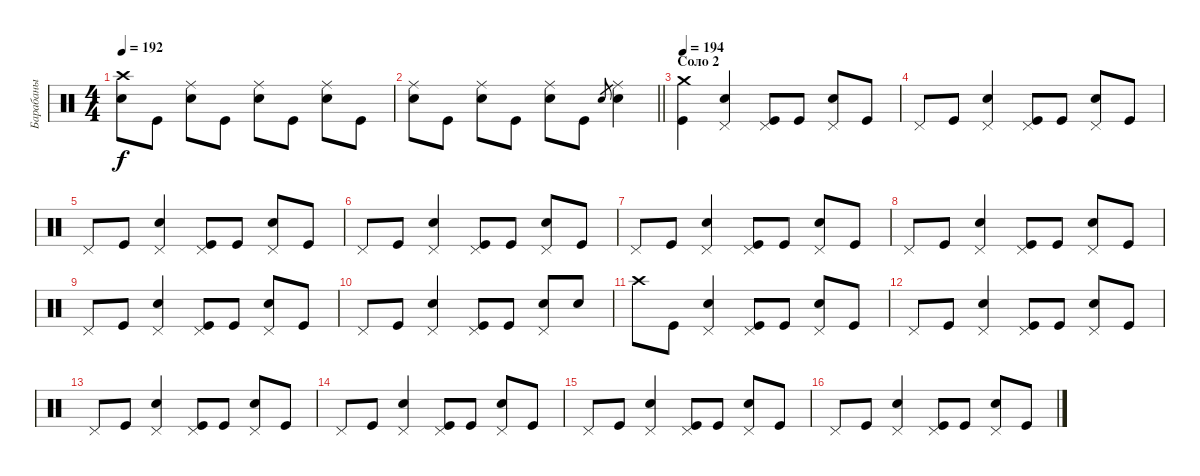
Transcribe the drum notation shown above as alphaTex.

\track ("Барабаны" "Барабаны") {instrument percussion}
\staff {score}
\articulation defaults
\ts (4 4)
\tempo 192
\clef neutral
\ks c
("Snare (hit) 2" "Crash high (hit)").8{dy f} "Kick (hit)".8 ("Snare (hit) 2" "Ride (middle)").8 "Kick (hit)".8 ("Snare (hit) 2" "Ride (middle)").8 "Kick (hit)".8 ("Snare (hit) 2" "Ride (middle)").8 "Kick (hit)".8 |
\barLineRight lightlight
("Snare (hit) 2" "Ride (middle)").8 "Kick (hit)".8 ("Snare (hit) 2" "Ride (middle)").8 "Kick (hit)".8 ("Snare (hit) 2" "Ride (middle)").8 "Kick (hit)".8 "Snare (hit) 2".8{gr} ("Snare (hit) 2" "Ride (middle)").4 |
\section ("" "Соло 2")
\tempo 194
("Kick (hit)" "Crash medium (hit)").4 ("Snare (hit) 2" "Pedal Hi-Hat (hit)").4 ("Kick (hit)" "Pedal Hi-Hat (hit)").8 "Kick (hit)".8 ("Snare (hit) 2" "Pedal Hi-Hat (hit)").8 "Kick (hit)".8 |
"Pedal Hi-Hat (hit)".8 "Kick (hit)".8 ("Snare (hit) 2" "Pedal Hi-Hat (hit)").4 ("Kick (hit)" "Pedal Hi-Hat (hit)").8 "Kick (hit)".8 ("Snare (hit) 2" "Pedal Hi-Hat (hit)").8 "Kick (hit)".8 |
"Pedal Hi-Hat (hit)".8 "Kick (hit)".8 ("Snare (hit) 2" "Pedal Hi-Hat (hit)").4 ("Kick (hit)" "Pedal Hi-Hat (hit)").8 "Kick (hit)".8 ("Snare (hit) 2" "Pedal Hi-Hat (hit)").8 "Kick (hit)".8 |
"Pedal Hi-Hat (hit)".8 "Kick (hit)".8 ("Snare (hit) 2" "Pedal Hi-Hat (hit)").4 ("Kick (hit)" "Pedal Hi-Hat (hit)").8 "Kick (hit)".8 ("Snare (hit) 2" "Pedal Hi-Hat (hit)").8 "Kick (hit)".8 |
"Pedal Hi-Hat (hit)".8 "Kick (hit)".8 ("Snare (hit) 2" "Pedal Hi-Hat (hit)").4 ("Kick (hit)" "Pedal Hi-Hat (hit)").8 "Kick (hit)".8 ("Snare (hit) 2" "Pedal Hi-Hat (hit)").8 "Kick (hit)".8 |
"Pedal Hi-Hat (hit)".8 "Kick (hit)".8 ("Snare (hit) 2" "Pedal Hi-Hat (hit)").4 ("Kick (hit)" "Pedal Hi-Hat (hit)").8 "Kick (hit)".8 ("Snare (hit) 2" "Pedal Hi-Hat (hit)").8 "Kick (hit)".8 |
"Pedal Hi-Hat (hit)".8 "Kick (hit)".8 ("Snare (hit) 2" "Pedal Hi-Hat (hit)").4 ("Kick (hit)" "Pedal Hi-Hat (hit)").8 "Kick (hit)".8 ("Snare (hit) 2" "Pedal Hi-Hat (hit)").8 "Kick (hit)".8 |
"Pedal Hi-Hat (hit)".8 "Kick (hit)".8 ("Snare (hit) 2" "Pedal Hi-Hat (hit)").4 ("Kick (hit)" "Pedal Hi-Hat (hit)").8 "Kick (hit)".8 ("Snare (hit) 2" "Pedal Hi-Hat (hit)").8 "Snare (hit) 2".8 |
"Crash high (hit)".8 "Kick (hit)".8 ("Snare (hit) 2" "Pedal Hi-Hat (hit)").4 ("Kick (hit)" "Pedal Hi-Hat (hit)").8 "Kick (hit)".8 ("Snare (hit) 2" "Pedal Hi-Hat (hit)").8 "Kick (hit)".8 |
"Pedal Hi-Hat (hit)".8 "Kick (hit)".8 ("Snare (hit) 2" "Pedal Hi-Hat (hit)").4 ("Kick (hit)" "Pedal Hi-Hat (hit)").8 "Kick (hit)".8 ("Snare (hit) 2" "Pedal Hi-Hat (hit)").8 "Kick (hit)".8 |
"Pedal Hi-Hat (hit)".8 "Kick (hit)".8 ("Snare (hit) 2" "Pedal Hi-Hat (hit)").4 ("Kick (hit)" "Pedal Hi-Hat (hit)").8 "Kick (hit)".8 ("Snare (hit) 2" "Pedal Hi-Hat (hit)").8 "Kick (hit)".8 |
"Pedal Hi-Hat (hit)".8 "Kick (hit)".8 ("Snare (hit) 2" "Pedal Hi-Hat (hit)").4 ("Kick (hit)" "Pedal Hi-Hat (hit)").8 "Kick (hit)".8 ("Snare (hit) 2" "Pedal Hi-Hat (hit)").8 "Kick (hit)".8 |
"Pedal Hi-Hat (hit)".8 "Kick (hit)".8 ("Snare (hit) 2" "Pedal Hi-Hat (hit)").4 ("Kick (hit)" "Pedal Hi-Hat (hit)").8 "Kick (hit)".8 ("Snare (hit) 2" "Pedal Hi-Hat (hit)").8 "Kick (hit)".8 |
"Pedal Hi-Hat (hit)".8 "Kick (hit)".8 ("Snare (hit) 2" "Pedal Hi-Hat (hit)").4 ("Kick (hit)" "Pedal Hi-Hat (hit)").8 "Kick (hit)".8 ("Snare (hit) 2" "Pedal Hi-Hat (hit)").8 "Kick (hit)".8
